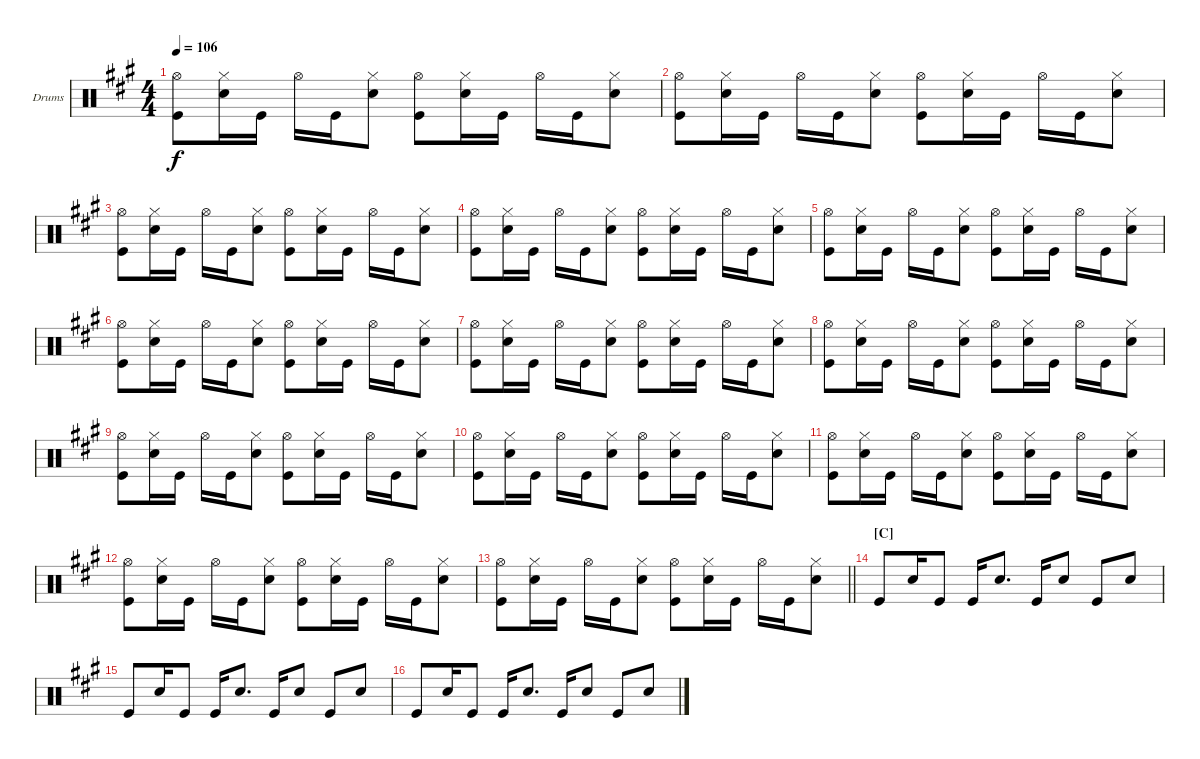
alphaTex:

\bracketExtendMode groupsimilarinstruments
\firstSystemTrackNameOrientation horizontal
\otherSystemsTrackNameOrientation horizontal
\track ("Fabrizio Moretti" "Drums") {instrument percussion}
\staff {score}
\articulation defaults
\ts (4 4)
\tempo 106
\clef neutral
\ks a
("Hi-Hat (open)" "Kick (hit)").8{dy f} ("Hi-Hat (closed)" "Snare (hit) 2").16 "Kick (hit)".16 "Hi-Hat (open)".16 "Kick (hit)".16 ("Hi-Hat (closed)" "Snare (hit) 2").8 ("Hi-Hat (open)" "Kick (hit)").8 ("Hi-Hat (closed)" "Snare (hit) 2").16 "Kick (hit)".16 "Hi-Hat (open)".16 "Kick (hit)".16 ("Hi-Hat (closed)" "Snare (hit) 2").8 |
("Hi-Hat (open)" "Kick (hit)").8 ("Hi-Hat (closed)" "Snare (hit) 2").16 "Kick (hit)".16 "Hi-Hat (open)".16 "Kick (hit)".16 ("Hi-Hat (closed)" "Snare (hit) 2").8 ("Hi-Hat (open)" "Kick (hit)").8 ("Hi-Hat (closed)" "Snare (hit) 2").16 "Kick (hit)".16 "Hi-Hat (open)".16 "Kick (hit)".16 ("Hi-Hat (closed)" "Snare (hit) 2").8 |
("Hi-Hat (open)" "Kick (hit)").8 ("Hi-Hat (closed)" "Snare (hit) 2").16 "Kick (hit)".16 "Hi-Hat (open)".16 "Kick (hit)".16 ("Hi-Hat (closed)" "Snare (hit) 2").8 ("Hi-Hat (open)" "Kick (hit)").8 ("Hi-Hat (closed)" "Snare (hit) 2").16 "Kick (hit)".16 "Hi-Hat (open)".16 "Kick (hit)".16 ("Hi-Hat (closed)" "Snare (hit) 2").8 |
("Hi-Hat (open)" "Kick (hit)").8 ("Hi-Hat (closed)" "Snare (hit) 2").16 "Kick (hit)".16 "Hi-Hat (open)".16 "Kick (hit)".16 ("Hi-Hat (closed)" "Snare (hit) 2").8 ("Hi-Hat (open)" "Kick (hit)").8 ("Hi-Hat (closed)" "Snare (hit) 2").16 "Kick (hit)".16 "Hi-Hat (open)".16 "Kick (hit)".16 ("Hi-Hat (closed)" "Snare (hit) 2").8 |
("Hi-Hat (open)" "Kick (hit)").8 ("Hi-Hat (closed)" "Snare (hit) 2").16 "Kick (hit)".16 "Hi-Hat (open)".16 "Kick (hit)".16 ("Hi-Hat (closed)" "Snare (hit) 2").8 ("Hi-Hat (open)" "Kick (hit)").8 ("Hi-Hat (closed)" "Snare (hit) 2").16 "Kick (hit)".16 "Hi-Hat (open)".16 "Kick (hit)".16 ("Hi-Hat (closed)" "Snare (hit) 2").8 |
("Hi-Hat (open)" "Kick (hit)").8 ("Hi-Hat (closed)" "Snare (hit) 2").16 "Kick (hit)".16 "Hi-Hat (open)".16 "Kick (hit)".16 ("Hi-Hat (closed)" "Snare (hit) 2").8 ("Hi-Hat (open)" "Kick (hit)").8 ("Hi-Hat (closed)" "Snare (hit) 2").16 "Kick (hit)".16 "Hi-Hat (open)".16 "Kick (hit)".16 ("Hi-Hat (closed)" "Snare (hit) 2").8 |
("Hi-Hat (open)" "Kick (hit)").8 ("Hi-Hat (closed)" "Snare (hit) 2").16 "Kick (hit)".16 "Hi-Hat (open)".16 "Kick (hit)".16 ("Hi-Hat (closed)" "Snare (hit) 2").8 ("Hi-Hat (open)" "Kick (hit)").8 ("Hi-Hat (closed)" "Snare (hit) 2").16 "Kick (hit)".16 "Hi-Hat (open)".16 "Kick (hit)".16 ("Hi-Hat (closed)" "Snare (hit) 2").8 |
("Hi-Hat (open)" "Kick (hit)").8 ("Hi-Hat (closed)" "Snare (hit) 2").16 "Kick (hit)".16 "Hi-Hat (open)".16 "Kick (hit)".16 ("Hi-Hat (closed)" "Snare (hit) 2").8 ("Hi-Hat (open)" "Kick (hit)").8 ("Hi-Hat (closed)" "Snare (hit) 2").16 "Kick (hit)".16 "Hi-Hat (open)".16 "Kick (hit)".16 ("Hi-Hat (closed)" "Snare (hit) 2").8 |
("Hi-Hat (open)" "Kick (hit)").8 ("Hi-Hat (closed)" "Snare (hit) 2").16 "Kick (hit)".16 "Hi-Hat (open)".16 "Kick (hit)".16 ("Hi-Hat (closed)" "Snare (hit) 2").8 ("Hi-Hat (open)" "Kick (hit)").8 ("Hi-Hat (closed)" "Snare (hit) 2").16 "Kick (hit)".16 "Hi-Hat (open)".16 "Kick (hit)".16 ("Hi-Hat (closed)" "Snare (hit) 2").8 |
("Hi-Hat (open)" "Kick (hit)").8 ("Hi-Hat (closed)" "Snare (hit) 2").16 "Kick (hit)".16 "Hi-Hat (open)".16 "Kick (hit)".16 ("Hi-Hat (closed)" "Snare (hit) 2").8 ("Hi-Hat (open)" "Kick (hit)").8 ("Hi-Hat (closed)" "Snare (hit) 2").16 "Kick (hit)".16 "Hi-Hat (open)".16 "Kick (hit)".16 ("Hi-Hat (closed)" "Snare (hit) 2").8 |
("Hi-Hat (open)" "Kick (hit)").8 ("Hi-Hat (closed)" "Snare (hit) 2").16 "Kick (hit)".16 "Hi-Hat (open)".16 "Kick (hit)".16 ("Hi-Hat (closed)" "Snare (hit) 2").8 ("Hi-Hat (open)" "Kick (hit)").8 ("Hi-Hat (closed)" "Snare (hit) 2").16 "Kick (hit)".16 "Hi-Hat (open)".16 "Kick (hit)".16 ("Hi-Hat (closed)" "Snare (hit) 2").8 |
("Hi-Hat (open)" "Kick (hit)").8 ("Hi-Hat (closed)" "Snare (hit) 2").16 "Kick (hit)".16 "Hi-Hat (open)".16 "Kick (hit)".16 ("Hi-Hat (closed)" "Snare (hit) 2").8 ("Hi-Hat (open)" "Kick (hit)").8 ("Hi-Hat (closed)" "Snare (hit) 2").16 "Kick (hit)".16 "Hi-Hat (open)".16 "Kick (hit)".16 ("Hi-Hat (closed)" "Snare (hit) 2").8 |
\barLineRight lightlight
("Hi-Hat (open)" "Kick (hit)").8 ("Hi-Hat (closed)" "Snare (hit) 2").16 "Kick (hit)".16 "Hi-Hat (open)".16 "Kick (hit)".16 ("Hi-Hat (closed)" "Snare (hit) 2").8 ("Hi-Hat (open)" "Kick (hit)").8 ("Hi-Hat (closed)" "Snare (hit) 2").16 "Kick (hit)".16 "Hi-Hat (open)".16 "Kick (hit)".16 ("Hi-Hat (closed)" "Snare (hit) 2").8 |
\section ("C" "")
"Kick (hit)".8 "Snare (hit) 2".16 "Kick (hit)".8 "Kick (hit)".16 "Snare (hit) 2".8{d} "Kick (hit)".16 "Snare (hit) 2".8 "Kick (hit)".8 "Snare (hit) 2".8 |
"Kick (hit)".8 "Snare (hit) 2".16 "Kick (hit)".8 "Kick (hit)".16 "Snare (hit) 2".8{d} "Kick (hit)".16 "Snare (hit) 2".8 "Kick (hit)".8 "Snare (hit) 2".8 |
"Kick (hit)".8 "Snare (hit) 2".16 "Kick (hit)".8 "Kick (hit)".16 "Snare (hit) 2".8{d} "Kick (hit)".16 "Snare (hit) 2".8 "Kick (hit)".8 "Snare (hit) 2".8
